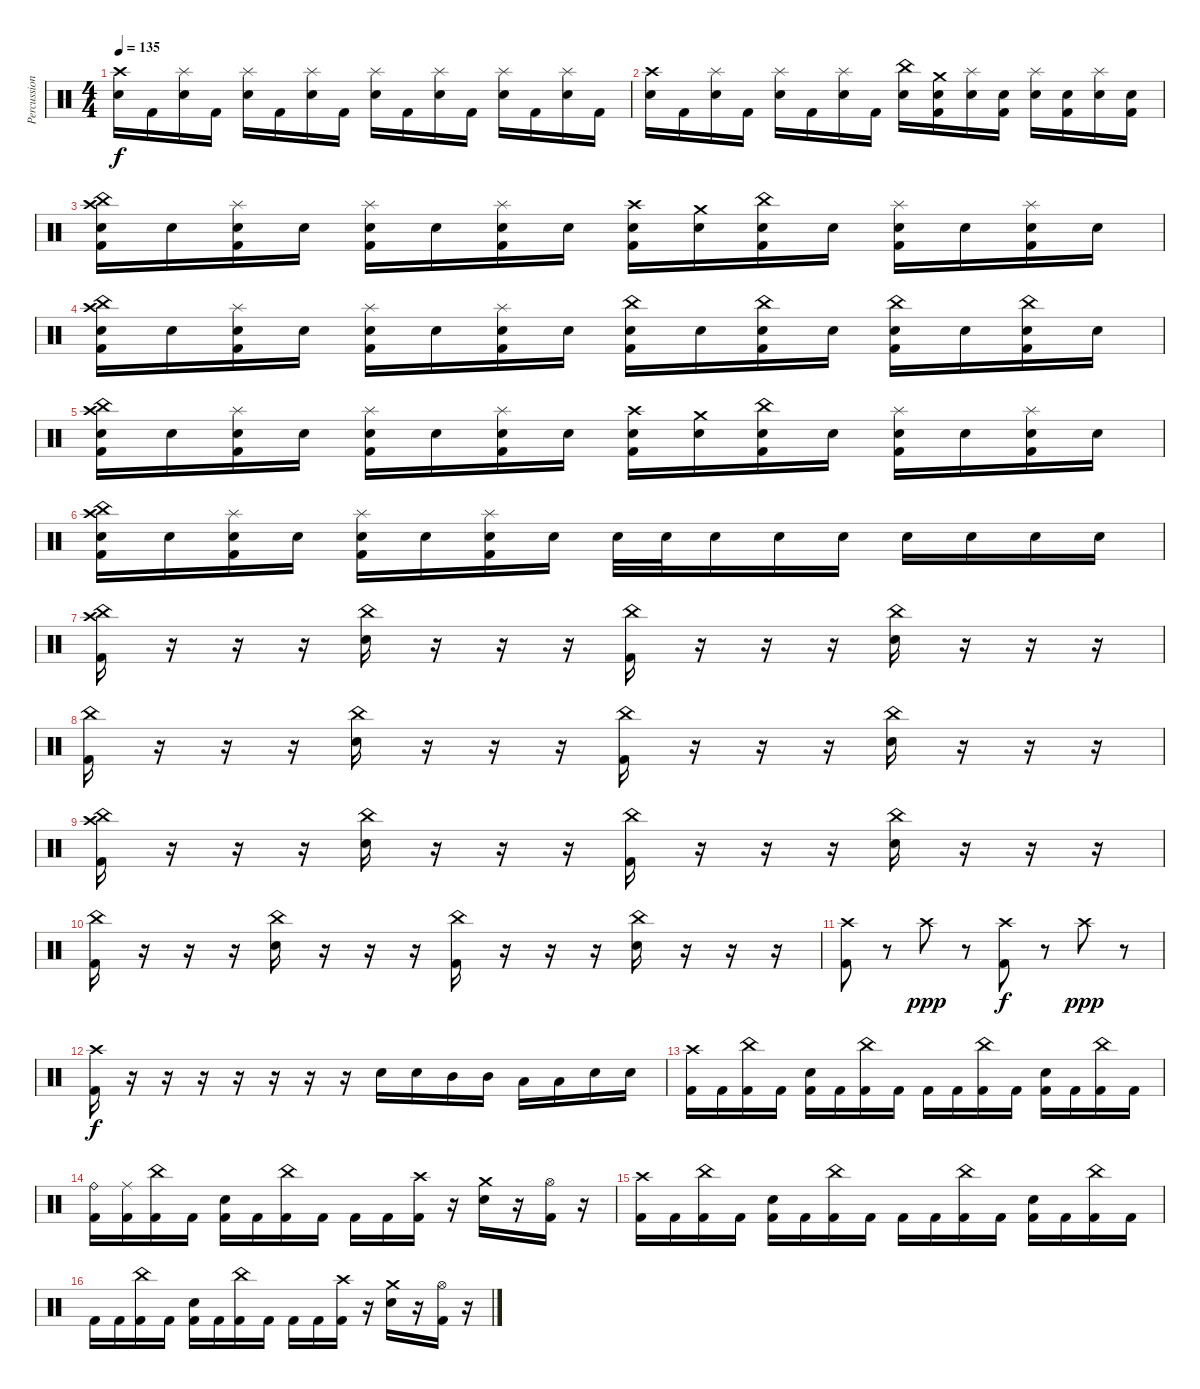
\track ("Percussion" "Percussion") {instrument percussion}
\staff {score}
\articulation defaults
\ts (4 4)
\tempo 135
\clef neutral
\ks c
("Crash high (hit)" "Electric Snare (hit)").16{dy f} "Kick (hit) 2".16 ("Splash (hit)" "Electric Snare (hit)").16 "Kick (hit) 2".16 ("Splash (hit)" "Electric Snare (hit)").16 "Kick (hit) 2".16 ("Splash (hit)" "Electric Snare (hit)").16 "Kick (hit) 2".16 ("Splash (hit)" "Electric Snare (hit)").16 "Kick (hit) 2".16 ("Splash (hit)" "Electric Snare (hit)").16 "Kick (hit) 2".16 ("Splash (hit)" "Electric Snare (hit)").16 "Kick (hit) 2".16 ("Splash (hit)" "Electric Snare (hit)").16 "Kick (hit) 2".16 |
("Crash high (hit)" "Electric Snare (hit)").16 "Kick (hit) 2".16 ("Splash (hit)" "Electric Snare (hit)").16 "Kick (hit) 2".16 ("Splash (hit)" "Electric Snare (hit)").16 "Kick (hit) 2".16 ("Splash (hit)" "Electric Snare (hit)").16 "Kick (hit) 2".16 ("China (hit)" "Electric Snare (hit)").16 ("Crash medium (hit)" "Electric Snare (hit)" "Kick (hit) 2").16 ("Splash (hit)" "Electric Snare (hit)").16 ("Electric Snare (hit)" "Kick (hit) 2").16 ("Splash (hit)" "Electric Snare (hit)").16 ("Electric Snare (hit)" "Kick (hit) 2").16 ("Splash (hit)" "Electric Snare (hit)").16 ("Electric Snare (hit)" "Kick (hit) 2").16 |
("China (hit)" "Crash high (hit)" "Electric Snare (hit)" "Kick (hit) 2").16 "Electric Snare (hit)".16 ("Splash (hit)" "Electric Snare (hit)" "Kick (hit) 2").16 "Electric Snare (hit)".16 ("Splash (hit)" "Electric Snare (hit)" "Kick (hit) 2").16 "Electric Snare (hit)".16 ("Splash (hit)" "Electric Snare (hit)" "Kick (hit) 2").16 "Electric Snare (hit)".16 ("Crash high (hit)" "Electric Snare (hit)" "Kick (hit) 2").16 ("Crash medium (hit)" "Electric Snare (hit)").16 ("China (hit)" "Electric Snare (hit)" "Kick (hit) 2").16 "Electric Snare (hit)".16 ("Splash (hit)" "Electric Snare (hit)" "Kick (hit) 2").16 "Electric Snare (hit)".16 ("Splash (hit)" "Electric Snare (hit)" "Kick (hit) 2").16 "Electric Snare (hit)".16 |
("China (hit)" "Crash high (hit)" "Electric Snare (hit)" "Kick (hit) 2").16 "Electric Snare (hit)".16 ("Splash (hit)" "Electric Snare (hit)" "Kick (hit) 2").16 "Electric Snare (hit)".16 ("Splash (hit)" "Electric Snare (hit)" "Kick (hit) 2").16 "Electric Snare (hit)".16 ("Splash (hit)" "Electric Snare (hit)" "Kick (hit) 2").16 "Electric Snare (hit)".16 ("China (hit)" "Electric Snare (hit)" "Kick (hit) 2").16 "Electric Snare (hit)".16 ("China (hit)" "Electric Snare (hit)" "Kick (hit) 2").16 "Electric Snare (hit)".16 ("China (hit)" "Electric Snare (hit)" "Kick (hit) 2").16 "Electric Snare (hit)".16 ("China (hit)" "Electric Snare (hit)" "Kick (hit) 2").16 "Electric Snare (hit)".16 |
("China (hit)" "Crash high (hit)" "Electric Snare (hit)" "Kick (hit) 2").16 "Electric Snare (hit)".16 ("Splash (hit)" "Electric Snare (hit)" "Kick (hit) 2").16 "Electric Snare (hit)".16 ("Splash (hit)" "Electric Snare (hit)" "Kick (hit) 2").16 "Electric Snare (hit)".16 ("Splash (hit)" "Electric Snare (hit)" "Kick (hit) 2").16 "Electric Snare (hit)".16 ("Crash high (hit)" "Electric Snare (hit)" "Kick (hit) 2").16 ("Crash medium (hit)" "Electric Snare (hit)").16 ("China (hit)" "Electric Snare (hit)" "Kick (hit) 2").16 "Electric Snare (hit)".16 ("Splash (hit)" "Electric Snare (hit)" "Kick (hit) 2").16 "Electric Snare (hit)".16 ("Splash (hit)" "Electric Snare (hit)" "Kick (hit) 2").16 "Electric Snare (hit)".16 |
("China (hit)" "Crash high (hit)" "Electric Snare (hit)" "Kick (hit) 2").16 "Electric Snare (hit)".16 ("Splash (hit)" "Electric Snare (hit)" "Kick (hit) 2").16 "Electric Snare (hit)".16 ("Splash (hit)" "Electric Snare (hit)" "Kick (hit) 2").16 "Electric Snare (hit)".16 ("Splash (hit)" "Electric Snare (hit)" "Kick (hit) 2").16 "Electric Snare (hit)".16 "Electric Snare (hit)".32 "Electric Snare (hit)".32 "Electric Snare (hit)".16 "Electric Snare (hit)".16 "Electric Snare (hit)".16 "Electric Snare (hit)".16 "Electric Snare (hit)".16 "Electric Snare (hit)".16 "Electric Snare (hit)".16 |
("China (hit)" "Crash high (hit)" "Kick (hit) 2").16 r.16 r.16 r.16 ("China (hit)" "Electric Snare (hit)").16 r.16 r.16 r.16 ("China (hit)" "Kick (hit) 2").16 r.16 r.16 r.16 ("China (hit)" "Electric Snare (hit)").16 r.16 r.16 r.16 |
("China (hit)" "Kick (hit) 2").16 r.16 r.16 r.16 ("China (hit)" "Electric Snare (hit)").16 r.16 r.16 r.16 ("China (hit)" "Kick (hit) 2").16 r.16 r.16 r.16 ("China (hit)" "Electric Snare (hit)").16 r.16 r.16 r.16 |
("China (hit)" "Crash high (hit)" "Kick (hit) 2").16 r.16 r.16 r.16 ("China (hit)" "Electric Snare (hit)").16 r.16 r.16 r.16 ("China (hit)" "Kick (hit) 2").16 r.16 r.16 r.16 ("China (hit)" "Electric Snare (hit)").16 r.16 r.16 r.16 |
("China (hit)" "Kick (hit) 2").16 r.16 r.16 r.16 ("China (hit)" "Electric Snare (hit)").16 r.16 r.16 r.16 ("China (hit)" "Kick (hit) 2").16 r.16 r.16 r.16 ("China (hit)" "Electric Snare (hit)").16 r.16 r.16 r.16 |
("Crash high (hit)" "Kick (hit) 2").8 r.8 "Crash high (hit)".8{dy ppp} r.8 ("Crash high (hit)" "Kick (hit) 2").8{dy f} r.8 "Crash high (hit)".8{dy ppp} r.8 |
("Crash high (hit)" "Kick (hit) 2").16{dy f} r.16 r.16 r.16 r.16 r.16 r.16 r.16 "Electric Snare (hit)".16 "Electric Snare (hit)".16 "Mid Tom (hit)".16 "Mid Tom (hit)".16 "Low Tom (hit)".16 "Low Tom (hit)".16 "Electric Snare (hit)".16 "Electric Snare (hit)".16 |
("Crash high (hit)" "Kick (hit) 2").16 "Kick (hit) 2".16 ("China (hit)" "Kick (hit) 2").16 "Kick (hit) 2".16 ("Electric Snare (hit)" "Kick (hit) 2").16 "Kick (hit) 2".16 ("China (hit)" "Kick (hit) 2").16 "Kick (hit) 2".16 "Kick (hit) 2".16 "Kick (hit) 2".16 ("China (hit)" "Kick (hit) 2").16 "Kick (hit) 2".16 ("Electric Snare (hit)" "Kick (hit) 2").16 "Kick (hit) 2".16 ("China (hit)" "Kick (hit) 2").16 "Kick (hit) 2".16 |
("Ride (bell)" "Kick (hit) 2").16 ("Ride (middle)" "Kick (hit) 2").16 ("China (hit)" "Kick (hit) 2").16 "Kick (hit) 2".16 ("Electric Snare (hit)" "Kick (hit) 2").16 "Kick (hit) 2".16 ("China (hit)" "Kick (hit) 2").16 "Kick (hit) 2".16 "Kick (hit) 2".16 "Kick (hit) 2".16 ("Crash high (hit)" "Kick (hit) 2").16 r.16 ("Crash medium (hit)" "Electric Snare (hit)").16 r.16 ("Hi-Hat (open)" "Kick (hit) 2").16 r.16 |
("Crash high (hit)" "Kick (hit) 2").16 "Kick (hit) 2".16 ("China (hit)" "Kick (hit) 2").16 "Kick (hit) 2".16 ("Electric Snare (hit)" "Kick (hit) 2").16 "Kick (hit) 2".16 ("China (hit)" "Kick (hit) 2").16 "Kick (hit) 2".16 "Kick (hit) 2".16 "Kick (hit) 2".16 ("China (hit)" "Kick (hit) 2").16 "Kick (hit) 2".16 ("Electric Snare (hit)" "Kick (hit) 2").16 "Kick (hit) 2".16 ("China (hit)" "Kick (hit) 2").16 "Kick (hit) 2".16 |
"Kick (hit) 2".16 "Kick (hit) 2".16 ("China (hit)" "Kick (hit) 2").16 "Kick (hit) 2".16 ("Electric Snare (hit)" "Kick (hit) 2").16 "Kick (hit) 2".16 ("China (hit)" "Kick (hit) 2").16 "Kick (hit) 2".16 "Kick (hit) 2".16 "Kick (hit) 2".16 ("Crash high (hit)" "Kick (hit) 2").16 r.16 ("Crash medium (hit)" "Electric Snare (hit)").16 r.16 ("Hi-Hat (open)" "Kick (hit) 2").16 r.16
